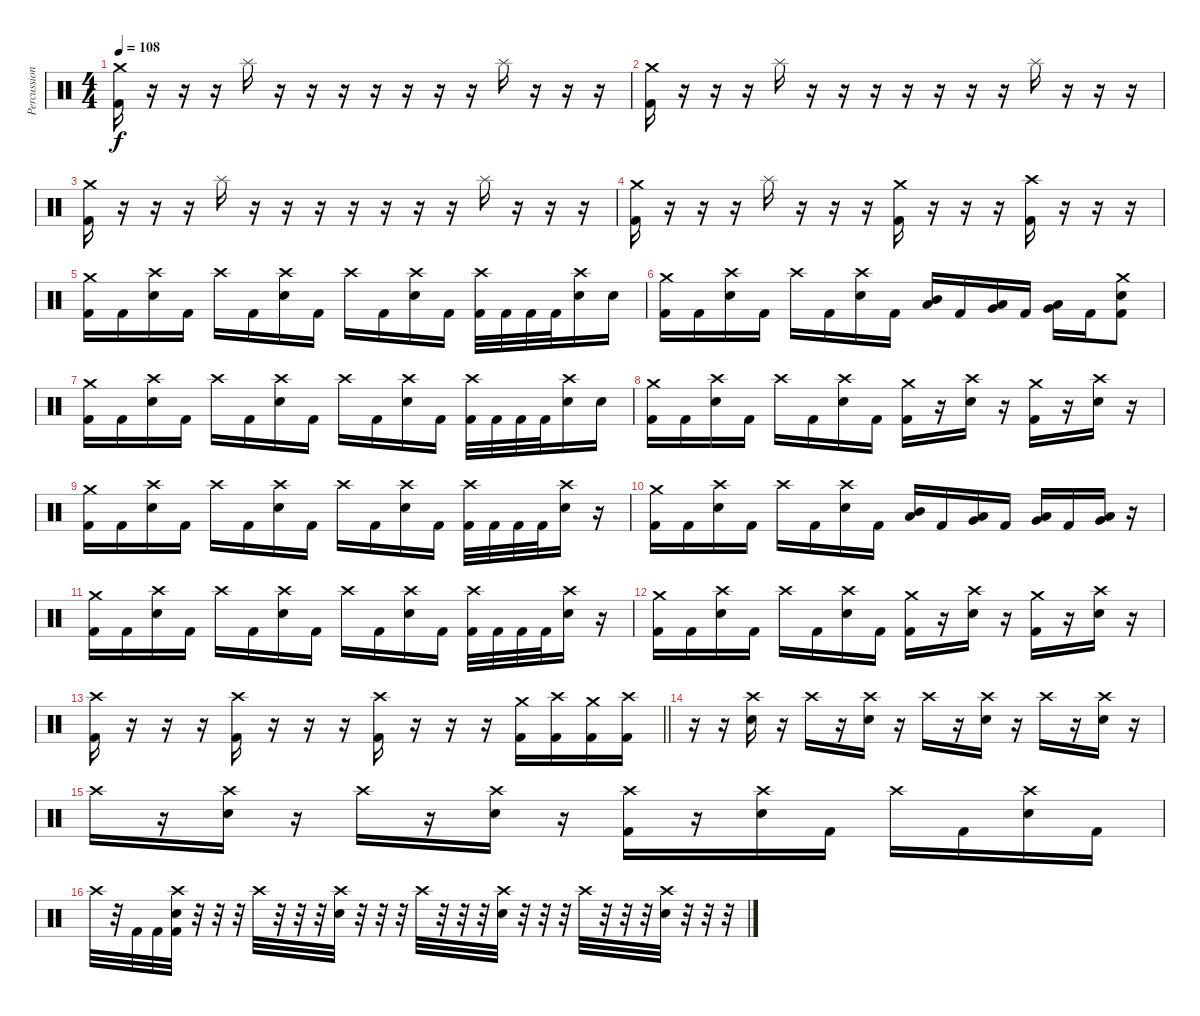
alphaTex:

\track ("Percussion (Moose)" "Percussion") {instrument percussion}
\staff {score}
\articulation defaults
\ts (4 4)
\tempo 108
\clef neutral
\ks c
("Crash medium (hit)" "Kick (hit) 2").16{dy f} r.16 r.16 r.16 "Splash (hit)".16 r.16 r.16 r.16 r.16 r.16 r.16 r.16 "Splash (hit)".16 r.16 r.16 r.16 |
("Crash medium (hit)" "Kick (hit) 2").16 r.16 r.16 r.16 "Splash (hit)".16 r.16 r.16 r.16 r.16 r.16 r.16 r.16 "Splash (hit)".16 r.16 r.16 r.16 |
("Crash medium (hit)" "Kick (hit) 2").16 r.16 r.16 r.16 "Splash (hit)".16 r.16 r.16 r.16 r.16 r.16 r.16 r.16 "Splash (hit)".16 r.16 r.16 r.16 |
("Crash medium (hit)" "Kick (hit) 2").16 r.16 r.16 r.16 "Splash (hit)".16 r.16 r.16 r.16 ("Crash medium (hit)" "Kick (hit) 2").16 r.16 r.16 r.16 ("Crash high (hit)" "Kick (hit) 2").16 r.16 r.16 r.16 |
("Crash medium (hit)" "Kick (hit) 2").16 "Kick (hit) 2".16 ("Crash high (hit)" "Electric Snare (hit)").16 "Kick (hit) 2".16 "Crash high (hit)".16 "Kick (hit) 2".16 ("Crash high (hit)" "Electric Snare (hit)").16 "Kick (hit) 2".16 "Crash high (hit)".16 "Kick (hit) 2".16 ("Crash high (hit)" "Electric Snare (hit)").16 "Kick (hit) 2".16 ("Crash high (hit)" "Kick (hit) 2").32 "Kick (hit) 2".32 "Kick (hit) 2".32 "Kick (hit) 2".32 ("Crash high (hit)" "Electric Snare (hit)").16 "Electric Snare (hit)".16 |
("Crash medium (hit)" "Kick (hit) 2").16 "Kick (hit) 2".16 ("Crash high (hit)" "Electric Snare (hit)").16 "Kick (hit) 2".16 "Crash high (hit)".16 "Kick (hit) 2".16 ("Crash high (hit)" "Electric Snare (hit)").16 "Kick (hit) 2".16 ("Mid Tom (hit)" "Low Tom (hit)").16 "Kick (hit) 2".16 ("Low Tom (hit)" "Very Low Tom (hit)").16 "Kick (hit) 2".16 ("Low Tom (hit)" "Very Low Tom (hit)").16 "Kick (hit) 2".16 ("Crash medium (hit)" "Electric Snare (hit)" "Kick (hit) 2").8 |
("Crash medium (hit)" "Kick (hit) 2").16 "Kick (hit) 2".16 ("Crash high (hit)" "Electric Snare (hit)").16 "Kick (hit) 2".16 "Crash high (hit)".16 "Kick (hit) 2".16 ("Crash high (hit)" "Electric Snare (hit)").16 "Kick (hit) 2".16 "Crash high (hit)".16 "Kick (hit) 2".16 ("Crash high (hit)" "Electric Snare (hit)").16 "Kick (hit) 2".16 ("Crash high (hit)" "Kick (hit) 2").32 "Kick (hit) 2".32 "Kick (hit) 2".32 "Kick (hit) 2".32 ("Crash high (hit)" "Electric Snare (hit)").16 "Electric Snare (hit)".16 |
("Crash medium (hit)" "Kick (hit) 2").16 "Kick (hit) 2".16 ("Crash high (hit)" "Electric Snare (hit)").16 "Kick (hit) 2".16 "Crash high (hit)".16 "Kick (hit) 2".16 ("Crash high (hit)" "Electric Snare (hit)").16 "Kick (hit) 2".16 ("Crash medium (hit)" "Kick (hit) 2").16 r.16 ("Crash high (hit)" "Electric Snare (hit)").16 r.16 ("Crash medium (hit)" "Kick (hit) 2").16 r.16 ("Crash high (hit)" "Electric Snare (hit)").16 r.16 |
("Crash medium (hit)" "Kick (hit) 2").16 "Kick (hit) 2".16 ("Crash high (hit)" "Electric Snare (hit)").16 "Kick (hit) 2".16 "Crash high (hit)".16 "Kick (hit) 2".16 ("Crash high (hit)" "Electric Snare (hit)").16 "Kick (hit) 2".16 "Crash high (hit)".16 "Kick (hit) 2".16 ("Crash high (hit)" "Electric Snare (hit)").16 "Kick (hit) 2".16 ("Crash high (hit)" "Kick (hit) 2").32 "Kick (hit) 2".32 "Kick (hit) 2".32 "Kick (hit) 2".32 ("Crash high (hit)" "Electric Snare (hit)").16 r.16 |
("Crash medium (hit)" "Kick (hit) 2").16 "Kick (hit) 2".16 ("Crash high (hit)" "Electric Snare (hit)").16 "Kick (hit) 2".16 "Crash high (hit)".16 "Kick (hit) 2".16 ("Crash high (hit)" "Electric Snare (hit)").16 "Kick (hit) 2".16 ("Mid Tom (hit)" "Low Tom (hit)").16 "Kick (hit) 2".16 ("Low Tom (hit)" "Very Low Tom (hit)").16 "Kick (hit) 2".16 ("Low Tom (hit)" "Very Low Tom (hit)").16 "Kick (hit) 2".16 ("Very Low Tom (hit)" "Low Floor Tom (hit)").16 r.16 |
("Crash medium (hit)" "Kick (hit) 2").16 "Kick (hit) 2".16 ("Crash high (hit)" "Electric Snare (hit)").16 "Kick (hit) 2".16 "Crash high (hit)".16 "Kick (hit) 2".16 ("Crash high (hit)" "Electric Snare (hit)").16 "Kick (hit) 2".16 "Crash high (hit)".16 "Kick (hit) 2".16 ("Crash high (hit)" "Electric Snare (hit)").16 "Kick (hit) 2".16 ("Crash high (hit)" "Kick (hit) 2").32 "Kick (hit) 2".32 "Kick (hit) 2".32 "Kick (hit) 2".32 ("Crash high (hit)" "Electric Snare (hit)").16 r.16 |
("Crash medium (hit)" "Kick (hit) 2").16 "Kick (hit) 2".16 ("Crash high (hit)" "Electric Snare (hit)").16 "Kick (hit) 2".16 "Crash high (hit)".16 "Kick (hit) 2".16 ("Crash high (hit)" "Electric Snare (hit)").16 "Kick (hit) 2".16 ("Crash medium (hit)" "Kick (hit) 2").16 r.16 ("Crash high (hit)" "Electric Snare (hit)").16 r.16 ("Crash medium (hit)" "Kick (hit) 2").16 r.16 ("Crash high (hit)" "Electric Snare (hit)").16 r.16 |
\barLineRight lightlight
("Crash high (hit)" "Kick (hit) 2").16 r.16 r.16 r.16 ("Crash high (hit)" "Kick (hit) 2").16 r.16 r.16 r.16 ("Crash high (hit)" "Kick (hit) 2").16 r.16 r.16 r.16 ("Crash medium (hit)" "Kick (hit) 2").16 ("Crash high (hit)" "Kick (hit) 2").16 ("Crash medium (hit)" "Kick (hit) 2").16 ("Crash high (hit)" "Kick (hit) 2").16 |
r.16 r.16 ("Crash high (hit)" "Electric Snare (hit)").16 r.16 "Crash high (hit)".16 r.16 ("Crash high (hit)" "Electric Snare (hit)").16 r.16 "Crash high (hit)".16 r.16 ("Crash high (hit)" "Electric Snare (hit)").16 r.16 "Crash high (hit)".16 r.16 ("Crash high (hit)" "Electric Snare (hit)").16 r.16 |
"Crash high (hit)".16 r.16 ("Crash high (hit)" "Electric Snare (hit)").16 r.16 "Crash high (hit)".16 r.16 ("Crash high (hit)" "Electric Snare (hit)").16 r.16 ("Crash high (hit)" "Kick (hit) 2").16 r.16 ("Crash high (hit)" "Electric Snare (hit)").16 "Kick (hit) 2".16 "Crash high (hit)".16 "Kick (hit) 2".16 ("Crash high (hit)" "Electric Snare (hit)").16 "Kick (hit) 2".16 |
"Crash high (hit)".32 r.32 "Kick (hit) 2".32 "Kick (hit) 2".32 ("Crash high (hit)" "Electric Snare (hit)" "Kick (hit) 2").32 r.32 r.32 r.32 "Crash high (hit)".32 r.32 r.32 r.32 ("Crash high (hit)" "Electric Snare (hit)").32 r.32 r.32 r.32 "Crash high (hit)".32 r.32 r.32 r.32 ("Crash high (hit)" "Electric Snare (hit)").32 r.32 r.32 r.32 "Crash high (hit)".32 r.32 r.32 r.32 ("Crash high (hit)" "Electric Snare (hit)").32 r.32 r.32 r.32
